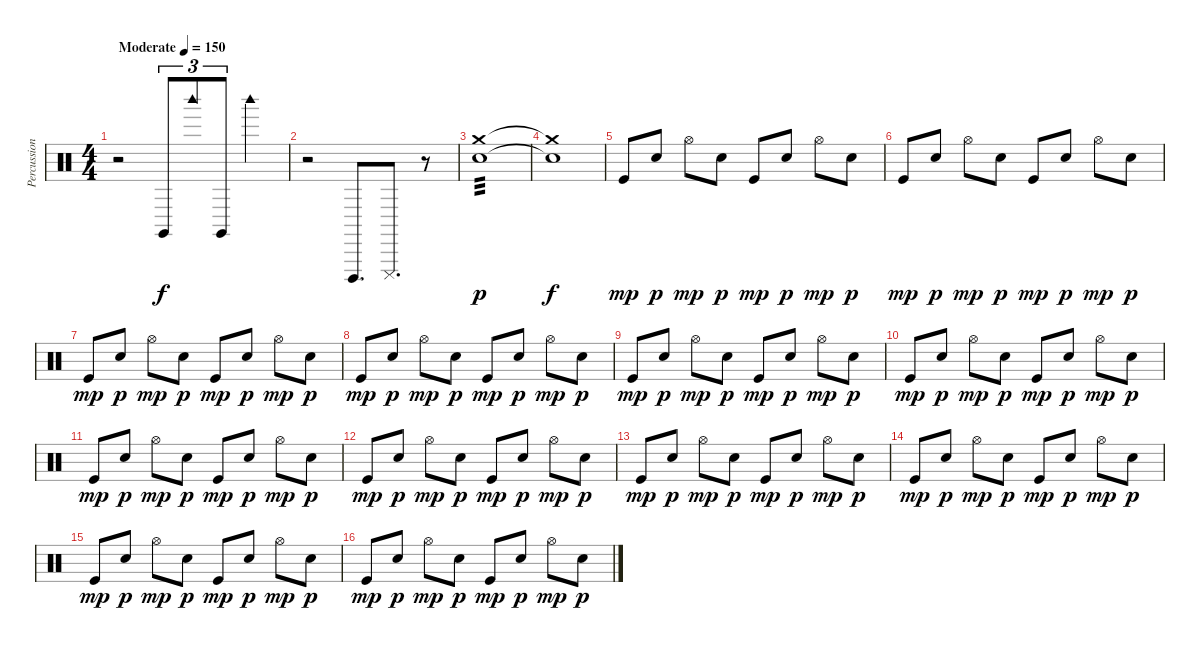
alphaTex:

\track ("Percussion" "Percussion") {instrument percussion}
\staff {score}
\articulation defaults
\ts (4 4)
\tempo (150 "Moderate")
\clef neutral
\ks c
r.2{dy f} "Claves (hit)".8{tu (3 2)} "Woodblock high (hit)".8{tu (3 2)} "Claves (hit)".8{tu (3 2)} "Woodblock high (hit)".4 |
r.2 "Cuica (open)".8{d} "Cuica (mute)".8{d} r.8 |
("Crash medium (hit)" "Electric Snare (hit)").1{tp 3 dy p} |
("Crash medium (hit)"{t} "Snare (hit)"{t}).1{dy f} |
"Kick (hit)".8{dy mp} "Electric Snare (hit)".8{dy p} "Hi-Hat (open)".8{dy mp} "Electric Snare (hit)".8{dy p} "Kick (hit)".8{dy mp} "Electric Snare (hit)".8{dy p} "Hi-Hat (open)".8{dy mp} "Electric Snare (hit)".8{dy p} |
"Kick (hit)".8{dy mp} "Electric Snare (hit)".8{dy p} "Hi-Hat (open)".8{dy mp} "Electric Snare (hit)".8{dy p} "Kick (hit)".8{dy mp} "Electric Snare (hit)".8{dy p} "Hi-Hat (open)".8{dy mp} "Electric Snare (hit)".8{dy p} |
"Kick (hit)".8{dy mp} "Electric Snare (hit)".8{dy p} "Hi-Hat (open)".8{dy mp} "Electric Snare (hit)".8{dy p} "Kick (hit)".8{dy mp} "Electric Snare (hit)".8{dy p} "Hi-Hat (open)".8{dy mp} "Electric Snare (hit)".8{dy p} |
"Kick (hit)".8{dy mp} "Electric Snare (hit)".8{dy p} "Hi-Hat (open)".8{dy mp} "Electric Snare (hit)".8{dy p} "Kick (hit)".8{dy mp} "Electric Snare (hit)".8{dy p} "Hi-Hat (open)".8{dy mp} "Electric Snare (hit)".8{dy p} |
"Kick (hit)".8{dy mp} "Electric Snare (hit)".8{dy p} "Hi-Hat (open)".8{dy mp} "Electric Snare (hit)".8{dy p} "Kick (hit)".8{dy mp} "Electric Snare (hit)".8{dy p} "Hi-Hat (open)".8{dy mp} "Electric Snare (hit)".8{dy p} |
"Kick (hit)".8{dy mp} "Electric Snare (hit)".8{dy p} "Hi-Hat (open)".8{dy mp} "Electric Snare (hit)".8{dy p} "Kick (hit)".8{dy mp} "Electric Snare (hit)".8{dy p} "Hi-Hat (open)".8{dy mp} "Electric Snare (hit)".8{dy p} |
"Kick (hit)".8{dy mp} "Electric Snare (hit)".8{dy p} "Hi-Hat (open)".8{dy mp} "Electric Snare (hit)".8{dy p} "Kick (hit)".8{dy mp} "Electric Snare (hit)".8{dy p} "Hi-Hat (open)".8{dy mp} "Electric Snare (hit)".8{dy p} |
"Kick (hit)".8{dy mp} "Electric Snare (hit)".8{dy p} "Hi-Hat (open)".8{dy mp} "Electric Snare (hit)".8{dy p} "Kick (hit)".8{dy mp} "Electric Snare (hit)".8{dy p} "Hi-Hat (open)".8{dy mp} "Electric Snare (hit)".8{dy p} |
"Kick (hit)".8{dy mp} "Electric Snare (hit)".8{dy p} "Hi-Hat (open)".8{dy mp} "Electric Snare (hit)".8{dy p} "Kick (hit)".8{dy mp} "Electric Snare (hit)".8{dy p} "Hi-Hat (open)".8{dy mp} "Electric Snare (hit)".8{dy p} |
"Kick (hit)".8{dy mp} "Electric Snare (hit)".8{dy p} "Hi-Hat (open)".8{dy mp} "Electric Snare (hit)".8{dy p} "Kick (hit)".8{dy mp} "Electric Snare (hit)".8{dy p} "Hi-Hat (open)".8{dy mp} "Electric Snare (hit)".8{dy p} |
"Kick (hit)".8{dy mp} "Electric Snare (hit)".8{dy p} "Hi-Hat (open)".8{dy mp} "Electric Snare (hit)".8{dy p} "Kick (hit)".8{dy mp} "Electric Snare (hit)".8{dy p} "Hi-Hat (open)".8{dy mp} "Electric Snare (hit)".8{dy p} |
"Kick (hit)".8{dy mp} "Electric Snare (hit)".8{dy p} "Hi-Hat (open)".8{dy mp} "Electric Snare (hit)".8{dy p} "Kick (hit)".8{dy mp} "Electric Snare (hit)".8{dy p} "Hi-Hat (open)".8{dy mp} "Electric Snare (hit)".8{dy p}
